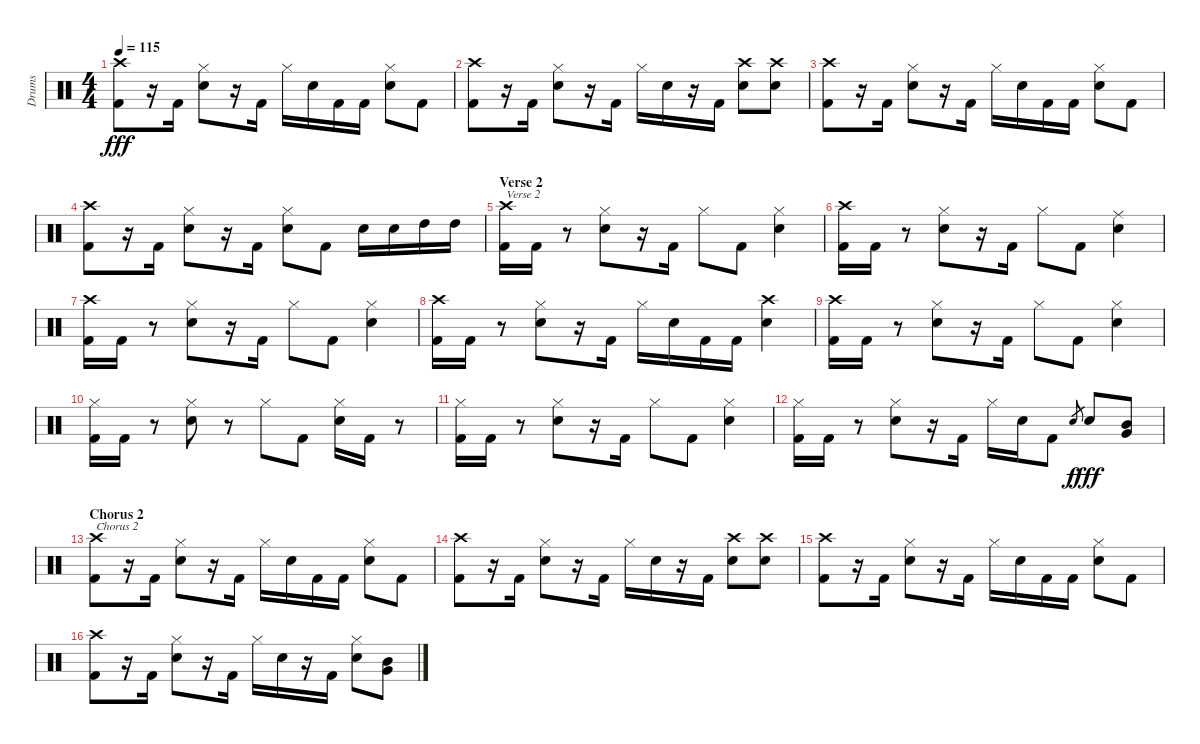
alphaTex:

\track ("Drums" "Drums") {instrument percussion}
\staff {score}
\articulation defaults
\ts (4 4)
\tempo 115
\clef neutral
\ks c
("Crash high (hit)" "Kick (hit) 2").8{dy fff} r.16 "Kick (hit) 2".16 ("Hi-Hat (closed)" "Electric Snare (hit)").8 r.16 "Kick (hit) 2".16 "Hi-Hat (closed)".16 "Electric Snare (hit)".16 "Kick (hit) 2".16 "Kick (hit) 2".16 ("Hi-Hat (closed)" "Electric Snare (hit)").8 "Kick (hit) 2".8 |
("Crash high (hit)" "Kick (hit) 2").8 r.16 "Kick (hit) 2".16 ("Hi-Hat (closed)" "Electric Snare (hit)").8 r.16 "Kick (hit) 2".16 "Hi-Hat (closed)".16 "Electric Snare (hit)".16 r.16 "Kick (hit) 2".16 ("Crash high (hit)" "Electric Snare (hit)").8 ("Crash high (hit)" "Electric Snare (hit)").8 |
("Crash high (hit)" "Kick (hit) 2").8 r.16 "Kick (hit) 2".16 ("Hi-Hat (closed)" "Electric Snare (hit)").8 r.16 "Kick (hit) 2".16 "Hi-Hat (closed)".16 "Electric Snare (hit)".16 "Kick (hit) 2".16 "Kick (hit) 2".16 ("Hi-Hat (closed)" "Electric Snare (hit)").8 "Kick (hit) 2".8 |
("Crash high (hit)" "Kick (hit) 2").8 r.16 "Kick (hit) 2".16 ("Hi-Hat (closed)" "Electric Snare (hit)").8 r.16 "Kick (hit) 2".16 ("Hi-Hat (closed)" "Electric Snare (hit)").8 "Kick (hit) 2".8 "Electric Snare (hit)".16 "Electric Snare (hit)".16 "High Tom (hit)".16 "High Tom (hit)".16 |
\section ("" "Verse 2")
("Crash high (hit)" "Kick (hit) 2").16{txt "Verse 2"} "Kick (hit) 2".16 r.8 ("Hi-Hat (closed)" "Electric Snare (hit)").8 r.16 "Kick (hit) 2".16 "Hi-Hat (closed)".8 "Kick (hit) 2".8 ("Hi-Hat (closed)" "Electric Snare (hit)").4 |
("Crash high (hit)" "Kick (hit) 2").16 "Kick (hit) 2".16 r.8 ("Hi-Hat (closed)" "Electric Snare (hit)").8 r.16 "Kick (hit) 2".16 "Hi-Hat (closed)".8 "Kick (hit) 2".8 ("Ride (middle)" "Electric Snare (hit)").4 |
("Crash high (hit)" "Kick (hit) 2").16 "Kick (hit) 2".16 r.8 ("Hi-Hat (closed)" "Electric Snare (hit)").8 r.16 "Kick (hit) 2".16 "Hi-Hat (closed)".8 "Kick (hit) 2".8 ("Hi-Hat (closed)" "Electric Snare (hit)").4 |
("Crash high (hit)" "Kick (hit) 2").16 "Kick (hit) 2".16 r.8 ("Hi-Hat (closed)" "Electric Snare (hit)").8 r.16 "Kick (hit) 2".16 "Hi-Hat (closed)".16 "Electric Snare (hit)".16 "Kick (hit) 2".16 "Kick (hit) 2".16 ("Crash high (hit)" "Electric Snare (hit)").4 |
("Crash high (hit)" "Kick (hit) 2").16 "Kick (hit) 2".16 r.8 ("Hi-Hat (closed)" "Electric Snare (hit)").8 r.16 "Kick (hit) 2".16 "Hi-Hat (closed)".8 "Kick (hit) 2".8 ("Hi-Hat (closed)" "Electric Snare (hit)").4 |
("Hi-Hat (closed)" "Kick (hit) 2").16 "Kick (hit) 2".16 r.8 ("Hi-Hat (closed)" "Electric Snare (hit)").8 r.8 "Hi-Hat (closed)".8 "Kick (hit) 2".8 ("Hi-Hat (closed)" "Electric Snare (hit)").16 "Kick (hit) 2".16 r.8 |
("Hi-Hat (closed)" "Kick (hit) 2").16 "Kick (hit) 2".16 r.8 ("Hi-Hat (closed)" "Electric Snare (hit)").8 r.16 "Kick (hit) 2".16 "Hi-Hat (closed)".8 "Kick (hit) 2".8 ("Hi-Hat (closed)" "Electric Snare (hit)").4 |
("Hi-Hat (closed)" "Kick (hit) 2").16 "Kick (hit) 2".16 r.8 ("Hi-Hat (closed)" "Electric Snare (hit)").8 r.16 "Kick (hit) 2".16 "Hi-Hat (closed)".16 "Electric Snare (hit)".16 "Kick (hit) 2".8 "Electric Snare (hit)".8{gr dy f} "Electric Snare (hit)".8{dy fff} ("Mid Tom (hit)" "Very Low Tom (hit)").8 |
\section ("" "Chorus 2")
("Crash high (hit)" "Kick (hit) 2").8{txt "Chorus 2"} r.16 "Kick (hit) 2".16 ("Hi-Hat (closed)" "Electric Snare (hit)").8 r.16 "Kick (hit) 2".16 "Hi-Hat (closed)".16 "Electric Snare (hit)".16 "Kick (hit) 2".16 "Kick (hit) 2".16 ("Hi-Hat (closed)" "Electric Snare (hit)").8 "Kick (hit) 2".8 |
("Crash high (hit)" "Kick (hit) 2").8 r.16 "Kick (hit) 2".16 ("Hi-Hat (closed)" "Electric Snare (hit)").8 r.16 "Kick (hit) 2".16 "Hi-Hat (closed)".16 "Electric Snare (hit)".16 r.16 "Kick (hit) 2".16 ("Crash high (hit)" "Electric Snare (hit)").8 ("Crash high (hit)" "Electric Snare (hit)").8 |
("Crash high (hit)" "Kick (hit) 2").8 r.16 "Kick (hit) 2".16 ("Hi-Hat (closed)" "Electric Snare (hit)").8 r.16 "Kick (hit) 2".16 "Hi-Hat (closed)".16 "Electric Snare (hit)".16 "Kick (hit) 2".16 "Kick (hit) 2".16 ("Hi-Hat (closed)" "Electric Snare (hit)").8 "Kick (hit) 2".8 |
("Crash high (hit)" "Kick (hit) 2").8 r.16 "Kick (hit) 2".16 ("Hi-Hat (closed)" "Electric Snare (hit)").8 r.16 "Kick (hit) 2".16 "Hi-Hat (closed)".16 "Electric Snare (hit)".16 r.16 "Kick (hit) 2".16 ("Hi-Hat (closed)" "Electric Snare (hit)").8 ("Mid Tom (hit)" "Very Low Tom (hit)").8
